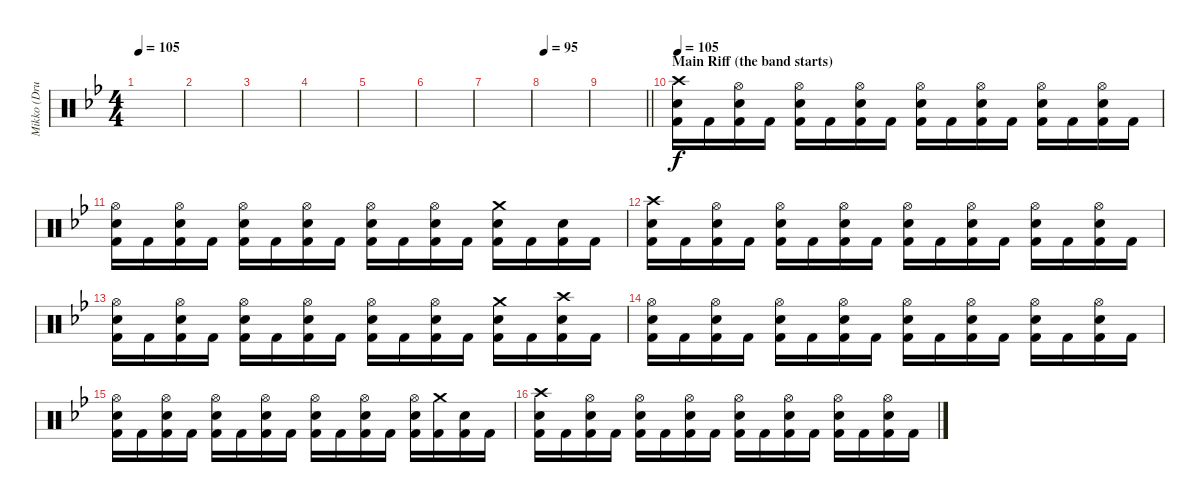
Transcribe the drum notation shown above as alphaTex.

\track ("Mikko (Drums)" "Mikko (Dru") {instrument percussion}
\staff {score}
\articulation defaults
\ts (4 4)
\tempo 105
\clef neutral
\ks bb
|
|
|
|
|
|
|
\tempo 95
|
\barLineRight lightlight
|
\section ("" "Main Riff (the band starts)")
\tempo 105
("Crash high (hit)" "Electric Snare (hit)" "Kick (hit) 2").16 "Kick (hit) 2".16 ("Hi-Hat (open)" "Electric Snare (hit)" "Kick (hit) 2").16 "Kick (hit) 2".16 ("Hi-Hat (open)" "Electric Snare (hit)" "Kick (hit) 2").16 "Kick (hit) 2".16 ("Hi-Hat (open)" "Electric Snare (hit)" "Kick (hit) 2").16 "Kick (hit) 2".16 ("Hi-Hat (open)" "Electric Snare (hit)" "Kick (hit) 2").16 "Kick (hit) 2".16 ("Hi-Hat (open)" "Electric Snare (hit)" "Kick (hit) 2").16 "Kick (hit) 2".16 ("Hi-Hat (open)" "Electric Snare (hit)" "Kick (hit) 2").16 "Kick (hit) 2".16 ("Hi-Hat (open)" "Electric Snare (hit)" "Kick (hit) 2").16 "Kick (hit) 2".16 |
("Hi-Hat (open)" "Electric Snare (hit)" "Kick (hit) 2").16 "Kick (hit) 2".16 ("Hi-Hat (open)" "Electric Snare (hit)" "Kick (hit) 2").16 "Kick (hit) 2".16 ("Hi-Hat (open)" "Electric Snare (hit)" "Kick (hit) 2").16 "Kick (hit) 2".16 ("Hi-Hat (open)" "Electric Snare (hit)" "Kick (hit) 2").16 "Kick (hit) 2".16 ("Hi-Hat (open)" "Electric Snare (hit)" "Kick (hit) 2").16 "Kick (hit) 2".16 ("Hi-Hat (open)" "Electric Snare (hit)" "Kick (hit) 2").16 "Kick (hit) 2".16 ("Crash medium (hit)" "Electric Snare (hit)" "Kick (hit) 2").16 "Kick (hit) 2".16 ("Electric Snare (hit)" "Kick (hit) 2").16 "Kick (hit) 2".16 |
("Crash high (hit)" "Electric Snare (hit)" "Kick (hit) 2").16 "Kick (hit) 2".16 ("Hi-Hat (open)" "Electric Snare (hit)" "Kick (hit) 2").16 "Kick (hit) 2".16 ("Hi-Hat (open)" "Electric Snare (hit)" "Kick (hit) 2").16 "Kick (hit) 2".16 ("Hi-Hat (open)" "Electric Snare (hit)" "Kick (hit) 2").16 "Kick (hit) 2".16 ("Hi-Hat (open)" "Electric Snare (hit)" "Kick (hit) 2").16 "Kick (hit) 2".16 ("Hi-Hat (open)" "Electric Snare (hit)" "Kick (hit) 2").16 "Kick (hit) 2".16 ("Hi-Hat (open)" "Electric Snare (hit)" "Kick (hit) 2").16 "Kick (hit) 2".16 ("Hi-Hat (open)" "Electric Snare (hit)" "Kick (hit) 2").16 "Kick (hit) 2".16 |
("Hi-Hat (open)" "Electric Snare (hit)" "Kick (hit) 2").16 "Kick (hit) 2".16 ("Hi-Hat (open)" "Electric Snare (hit)" "Kick (hit) 2").16 "Kick (hit) 2".16 ("Hi-Hat (open)" "Electric Snare (hit)" "Kick (hit) 2").16 "Kick (hit) 2".16 ("Hi-Hat (open)" "Electric Snare (hit)" "Kick (hit) 2").16 "Kick (hit) 2".16 ("Hi-Hat (open)" "Electric Snare (hit)" "Kick (hit) 2").16 "Kick (hit) 2".16 ("Hi-Hat (open)" "Electric Snare (hit)" "Kick (hit) 2").16 "Kick (hit) 2".16 ("Crash medium (hit)" "Electric Snare (hit)" "Kick (hit) 2").16 "Kick (hit) 2".16 ("Crash high (hit)" "Electric Snare (hit)" "Kick (hit) 2").16 "Kick (hit) 2".16 |
("Hi-Hat (open)" "Electric Snare (hit)" "Kick (hit) 2").16 "Kick (hit) 2".16 ("Hi-Hat (open)" "Electric Snare (hit)" "Kick (hit) 2").16 "Kick (hit) 2".16 ("Hi-Hat (open)" "Electric Snare (hit)" "Kick (hit) 2").16 "Kick (hit) 2".16 ("Hi-Hat (open)" "Electric Snare (hit)" "Kick (hit) 2").16 "Kick (hit) 2".16 ("Hi-Hat (open)" "Electric Snare (hit)" "Kick (hit) 2").16 "Kick (hit) 2".16 ("Hi-Hat (open)" "Electric Snare (hit)" "Kick (hit) 2").16 "Kick (hit) 2".16 ("Hi-Hat (open)" "Electric Snare (hit)" "Kick (hit) 2").16 "Kick (hit) 2".16 ("Hi-Hat (open)" "Electric Snare (hit)" "Kick (hit) 2").16 "Kick (hit) 2".16 |
("Hi-Hat (open)" "Electric Snare (hit)" "Kick (hit) 2").16 "Kick (hit) 2".16 ("Hi-Hat (open)" "Electric Snare (hit)" "Kick (hit) 2").16 "Kick (hit) 2".16 ("Hi-Hat (open)" "Electric Snare (hit)" "Kick (hit) 2").16 "Kick (hit) 2".16 ("Hi-Hat (open)" "Electric Snare (hit)" "Kick (hit) 2").16 "Kick (hit) 2".16 ("Hi-Hat (open)" "Electric Snare (hit)" "Kick (hit) 2").16 "Kick (hit) 2".16 ("Hi-Hat (open)" "Electric Snare (hit)" "Kick (hit) 2").16 "Kick (hit) 2".16 ("Hi-Hat (open)" "Electric Snare (hit)" "Kick (hit) 2").16 ("Crash medium (hit)" "Kick (hit) 2").16 ("Electric Snare (hit)" "Kick (hit) 2").16 "Kick (hit) 2".16 |
("Crash high (hit)" "Electric Snare (hit)" "Kick (hit) 2").16 "Kick (hit) 2".16 ("Hi-Hat (open)" "Electric Snare (hit)" "Kick (hit) 2").16 "Kick (hit) 2".16 ("Hi-Hat (open)" "Electric Snare (hit)" "Kick (hit) 2").16 "Kick (hit) 2".16 ("Hi-Hat (open)" "Electric Snare (hit)" "Kick (hit) 2").16 "Kick (hit) 2".16 ("Hi-Hat (open)" "Electric Snare (hit)" "Kick (hit) 2").16 "Kick (hit) 2".16 ("Hi-Hat (open)" "Electric Snare (hit)" "Kick (hit) 2").16 "Kick (hit) 2".16 ("Hi-Hat (open)" "Electric Snare (hit)" "Kick (hit) 2").16 "Kick (hit) 2".16 ("Hi-Hat (open)" "Electric Snare (hit)" "Kick (hit) 2").16 "Kick (hit) 2".16
